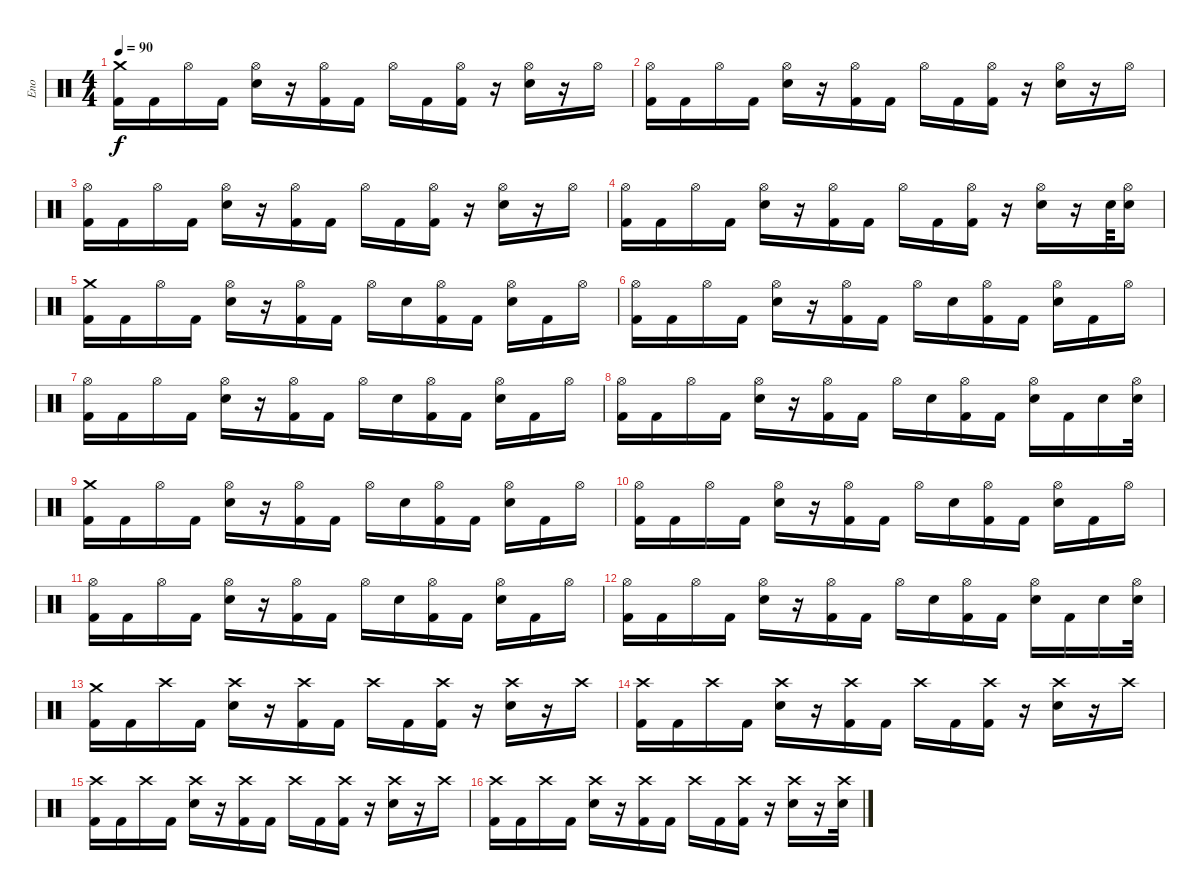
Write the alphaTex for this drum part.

\track ("Eno" "Eno") {instrument percussion}
\staff {score}
\articulation defaults
\ts (4 4)
\tempo 90
\clef neutral
\ks c
("Crash medium (hit)" "Kick (hit) 2").16{dy f} "Kick (hit) 2".16 "Hi-Hat (open)".16 "Kick (hit) 2".16 ("Hi-Hat (open)" "Snare (hit) 2").16 r.16 ("Hi-Hat (open)" "Kick (hit) 2").16 "Kick (hit) 2".16 "Hi-Hat (open)".16 "Kick (hit) 2".16 ("Hi-Hat (open)" "Kick (hit) 2").16 r.16 ("Hi-Hat (open)" "Snare (hit) 2").16 r.16 "Hi-Hat (open)".16 |
("Hi-Hat (open)" "Kick (hit) 2").16 "Kick (hit) 2".16 "Hi-Hat (open)".16 "Kick (hit) 2".16 ("Hi-Hat (open)" "Snare (hit) 2").16 r.16 ("Hi-Hat (open)" "Kick (hit) 2").16 "Kick (hit) 2".16 "Hi-Hat (open)".16 "Kick (hit) 2".16 ("Hi-Hat (open)" "Kick (hit) 2").16 r.16 ("Hi-Hat (open)" "Snare (hit) 2").16 r.16 "Hi-Hat (open)".16 |
("Hi-Hat (open)" "Kick (hit) 2").16 "Kick (hit) 2".16 "Hi-Hat (open)".16 "Kick (hit) 2".16 ("Hi-Hat (open)" "Snare (hit) 2").16 r.16 ("Hi-Hat (open)" "Kick (hit) 2").16 "Kick (hit) 2".16 "Hi-Hat (open)".16 "Kick (hit) 2".16 ("Hi-Hat (open)" "Kick (hit) 2").16 r.16 ("Hi-Hat (open)" "Snare (hit) 2").16 r.16 "Hi-Hat (open)".16 |
("Hi-Hat (open)" "Kick (hit) 2").16 "Kick (hit) 2".16 "Hi-Hat (open)".16 "Kick (hit) 2".16 ("Hi-Hat (open)" "Snare (hit) 2").16 r.16 ("Hi-Hat (open)" "Kick (hit) 2").16 "Kick (hit) 2".16 "Hi-Hat (open)".16 "Kick (hit) 2".16 ("Hi-Hat (open)" "Kick (hit) 2").16 r.16 ("Hi-Hat (open)" "Snare (hit) 2").16 r.16 "Snare (hit) 2".64 ("Hi-Hat (open)" "Snare (hit) 2").16 |
("Crash medium (hit)" "Kick (hit) 2").16 "Kick (hit) 2".16 "Hi-Hat (open)".16 "Kick (hit) 2".16 ("Hi-Hat (open)" "Snare (hit) 2").16 r.16 ("Hi-Hat (open)" "Kick (hit) 2").16 "Kick (hit) 2".16 "Hi-Hat (open)".16 "Snare (hit) 2".16 ("Hi-Hat (open)" "Kick (hit) 2").16 "Kick (hit) 2".16 ("Hi-Hat (open)" "Snare (hit) 2").16 "Kick (hit) 2".16 "Hi-Hat (open)".16 |
("Hi-Hat (open)" "Kick (hit) 2").16 "Kick (hit) 2".16 "Hi-Hat (open)".16 "Kick (hit) 2".16 ("Hi-Hat (open)" "Snare (hit) 2").16 r.16 ("Hi-Hat (open)" "Kick (hit) 2").16 "Kick (hit) 2".16 "Hi-Hat (open)".16 "Snare (hit) 2".16 ("Hi-Hat (open)" "Kick (hit) 2").16 "Kick (hit) 2".16 ("Hi-Hat (open)" "Snare (hit) 2").16 "Kick (hit) 2".16 "Hi-Hat (open)".16 |
("Hi-Hat (open)" "Kick (hit) 2").16 "Kick (hit) 2".16 "Hi-Hat (open)".16 "Kick (hit) 2".16 ("Hi-Hat (open)" "Snare (hit) 2").16 r.16 ("Hi-Hat (open)" "Kick (hit) 2").16 "Kick (hit) 2".16 "Hi-Hat (open)".16 "Snare (hit) 2".16 ("Hi-Hat (open)" "Kick (hit) 2").16 "Kick (hit) 2".16 ("Hi-Hat (open)" "Snare (hit) 2").16 "Kick (hit) 2".16 "Hi-Hat (open)".16 |
("Hi-Hat (open)" "Kick (hit) 2").16 "Kick (hit) 2".16 "Hi-Hat (open)".16 "Kick (hit) 2".16 ("Hi-Hat (open)" "Snare (hit) 2").16 r.16 ("Hi-Hat (open)" "Kick (hit) 2").16 "Kick (hit) 2".16 "Hi-Hat (open)".16 "Snare (hit) 2".16 ("Hi-Hat (open)" "Kick (hit) 2").16 "Kick (hit) 2".16 ("Hi-Hat (open)" "Snare (hit) 2").16 "Kick (hit) 2".16 "Snare (hit) 2".16 ("Hi-Hat (open)" "Snare (hit) 2").32 |
("Crash medium (hit)" "Kick (hit) 2").16 "Kick (hit) 2".16 "Hi-Hat (open)".16 "Kick (hit) 2".16 ("Hi-Hat (open)" "Snare (hit) 2").16 r.16 ("Hi-Hat (open)" "Kick (hit) 2").16 "Kick (hit) 2".16 "Hi-Hat (open)".16 "Snare (hit) 2".16 ("Hi-Hat (open)" "Kick (hit) 2").16 "Kick (hit) 2".16 ("Hi-Hat (open)" "Snare (hit) 2").16 "Kick (hit) 2".16 "Hi-Hat (open)".16 |
("Hi-Hat (open)" "Kick (hit) 2").16 "Kick (hit) 2".16 "Hi-Hat (open)".16 "Kick (hit) 2".16 ("Hi-Hat (open)" "Snare (hit) 2").16 r.16 ("Hi-Hat (open)" "Kick (hit) 2").16 "Kick (hit) 2".16 "Hi-Hat (open)".16 "Snare (hit) 2".16 ("Hi-Hat (open)" "Kick (hit) 2").16 "Kick (hit) 2".16 ("Hi-Hat (open)" "Snare (hit) 2").16 "Kick (hit) 2".16 "Hi-Hat (open)".16 |
("Hi-Hat (open)" "Kick (hit) 2").16 "Kick (hit) 2".16 "Hi-Hat (open)".16 "Kick (hit) 2".16 ("Hi-Hat (open)" "Snare (hit) 2").16 r.16 ("Hi-Hat (open)" "Kick (hit) 2").16 "Kick (hit) 2".16 "Hi-Hat (open)".16 "Snare (hit) 2".16 ("Hi-Hat (open)" "Kick (hit) 2").16 "Kick (hit) 2".16 ("Hi-Hat (open)" "Snare (hit) 2").16 "Kick (hit) 2".16 "Hi-Hat (open)".16 |
("Hi-Hat (open)" "Kick (hit) 2").16 "Kick (hit) 2".16 "Hi-Hat (open)".16 "Kick (hit) 2".16 ("Hi-Hat (open)" "Snare (hit) 2").16 r.16 ("Hi-Hat (open)" "Kick (hit) 2").16 "Kick (hit) 2".16 "Hi-Hat (open)".16 "Snare (hit) 2".16 ("Hi-Hat (open)" "Kick (hit) 2").16 "Kick (hit) 2".16 ("Hi-Hat (open)" "Snare (hit) 2").16 "Kick (hit) 2".16 "Snare (hit) 2".16 ("Hi-Hat (open)" "Snare (hit) 2").32 |
("Crash medium (hit)" "Kick (hit) 2").16 "Kick (hit) 2".16 "Crash high (hit)".16 "Kick (hit) 2".16 ("Crash high (hit)" "Snare (hit) 2").16 r.16 ("Crash high (hit)" "Kick (hit) 2").16 "Kick (hit) 2".16 "Crash high (hit)".16 "Kick (hit) 2".16 ("Crash high (hit)" "Kick (hit) 2").16 r.16 ("Crash high (hit)" "Snare (hit) 2").16 r.16 "Crash high (hit)".16 |
("Crash high (hit)" "Kick (hit) 2").16 "Kick (hit) 2".16 "Crash high (hit)".16 "Kick (hit) 2".16 ("Crash high (hit)" "Snare (hit) 2").16 r.16 ("Crash high (hit)" "Kick (hit) 2").16 "Kick (hit) 2".16 "Crash high (hit)".16 "Kick (hit) 2".16 ("Crash high (hit)" "Kick (hit) 2").16 r.16 ("Crash high (hit)" "Snare (hit) 2").16 r.16 "Crash high (hit)".16 |
("Crash high (hit)" "Kick (hit) 2").16 "Kick (hit) 2".16 "Crash high (hit)".16 "Kick (hit) 2".16 ("Crash high (hit)" "Snare (hit) 2").16 r.16 ("Crash high (hit)" "Kick (hit) 2").16 "Kick (hit) 2".16 "Crash high (hit)".16 "Kick (hit) 2".16 ("Crash high (hit)" "Kick (hit) 2").16 r.16 ("Crash high (hit)" "Snare (hit) 2").16 r.16 "Crash high (hit)".16 |
("Crash high (hit)" "Kick (hit) 2").16 "Kick (hit) 2".16 "Crash high (hit)".16 "Kick (hit) 2".16 ("Crash high (hit)" "Snare (hit) 2").16 r.16 ("Crash high (hit)" "Kick (hit) 2").16 "Kick (hit) 2".16 "Crash high (hit)".16 "Kick (hit) 2".16 ("Crash high (hit)" "Kick (hit) 2").16 r.16 ("Crash high (hit)" "Snare (hit) 2").16 r.16 ("Crash high (hit)" "Snare (hit) 2").32
